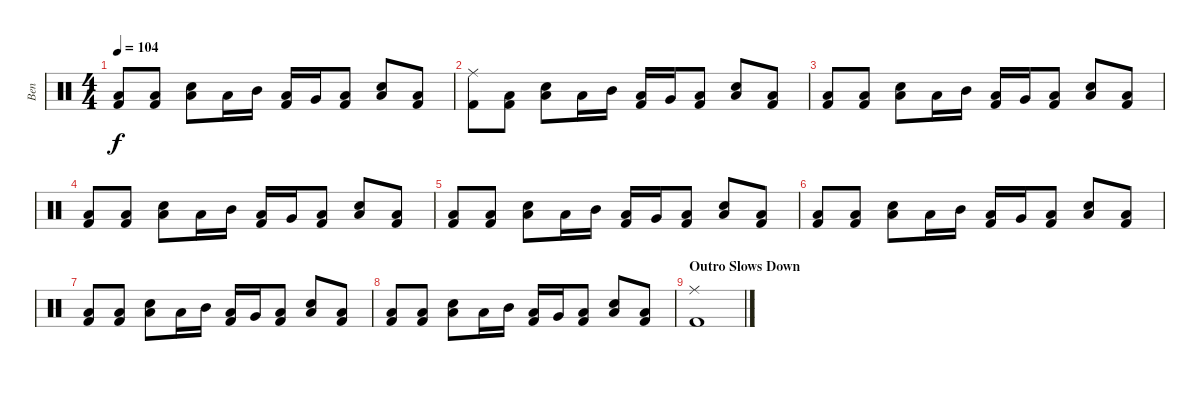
\track ("Ben" "Ben") {instrument percussion}
\staff {score}
\articulation defaults
\ts (4 4)
\tempo 104
\clef neutral
\ks c
("Low Floor Tom (hit)" "Kick (hit) 2").8{dy f} ("Low Floor Tom (hit)" "Kick (hit) 2").8 ("Snare (hit) 2" "Low Floor Tom (hit)").8 "Low Floor Tom (hit)".16 "Mid Tom (hit)".16 ("Low Floor Tom (hit)" "Kick (hit) 2").16 "Very Low Tom (hit)".16 ("Low Floor Tom (hit)" "Kick (hit) 2").8 ("Snare (hit) 2" "Low Floor Tom (hit)").8 ("Low Floor Tom (hit)" "Kick (hit) 2").8 |
("Ride (middle)" "Kick (hit) 2").8 ("Low Floor Tom (hit)" "Kick (hit) 2").8 ("Snare (hit) 2" "Low Floor Tom (hit)").8 "Low Floor Tom (hit)".16 "Mid Tom (hit)".16 ("Low Floor Tom (hit)" "Kick (hit) 2").16 "Very Low Tom (hit)".16 ("Low Floor Tom (hit)" "Kick (hit) 2").8 ("Snare (hit) 2" "Low Floor Tom (hit)").8 ("Low Floor Tom (hit)" "Kick (hit) 2").8 |
("Low Floor Tom (hit)" "Kick (hit) 2").8 ("Low Floor Tom (hit)" "Kick (hit) 2").8 ("Snare (hit) 2" "Low Floor Tom (hit)").8 "Low Floor Tom (hit)".16 "Mid Tom (hit)".16 ("Low Floor Tom (hit)" "Kick (hit) 2").16 "Very Low Tom (hit)".16 ("Low Floor Tom (hit)" "Kick (hit) 2").8 ("Snare (hit) 2" "Low Floor Tom (hit)").8 ("Low Floor Tom (hit)" "Kick (hit) 2").8 |
("Low Floor Tom (hit)" "Kick (hit) 2").8 ("Low Floor Tom (hit)" "Kick (hit) 2").8 ("Snare (hit) 2" "Low Floor Tom (hit)").8 "Low Floor Tom (hit)".16 "Mid Tom (hit)".16 ("Low Floor Tom (hit)" "Kick (hit) 2").16 "Very Low Tom (hit)".16 ("Low Floor Tom (hit)" "Kick (hit) 2").8 ("Snare (hit) 2" "Low Floor Tom (hit)").8 ("Low Floor Tom (hit)" "Kick (hit) 2").8 |
("Low Floor Tom (hit)" "Kick (hit) 2").8 ("Low Floor Tom (hit)" "Kick (hit) 2").8 ("Snare (hit) 2" "Low Floor Tom (hit)").8 "Low Floor Tom (hit)".16 "Mid Tom (hit)".16 ("Low Floor Tom (hit)" "Kick (hit) 2").16 "Very Low Tom (hit)".16 ("Low Floor Tom (hit)" "Kick (hit) 2").8 ("Snare (hit) 2" "Low Floor Tom (hit)").8 ("Low Floor Tom (hit)" "Kick (hit) 2").8 |
("Low Floor Tom (hit)" "Kick (hit) 2").8 ("Low Floor Tom (hit)" "Kick (hit) 2").8 ("Snare (hit) 2" "Low Floor Tom (hit)").8 "Low Floor Tom (hit)".16 "Mid Tom (hit)".16 ("Low Floor Tom (hit)" "Kick (hit) 2").16 "Very Low Tom (hit)".16 ("Low Floor Tom (hit)" "Kick (hit) 2").8 ("Snare (hit) 2" "Low Floor Tom (hit)").8 ("Low Floor Tom (hit)" "Kick (hit) 2").8 |
("Low Floor Tom (hit)" "Kick (hit) 2").8 ("Low Floor Tom (hit)" "Kick (hit) 2").8 ("Snare (hit) 2" "Low Floor Tom (hit)").8 "Low Floor Tom (hit)".16 "Mid Tom (hit)".16 ("Low Floor Tom (hit)" "Kick (hit) 2").16 "Very Low Tom (hit)".16 ("Low Floor Tom (hit)" "Kick (hit) 2").8 ("Snare (hit) 2" "Low Floor Tom (hit)").8 ("Low Floor Tom (hit)" "Kick (hit) 2").8 |
("Low Floor Tom (hit)" "Kick (hit) 2").8 ("Low Floor Tom (hit)" "Kick (hit) 2").8 ("Snare (hit) 2" "Low Floor Tom (hit)").8 "Low Floor Tom (hit)".16 "Mid Tom (hit)".16 ("Low Floor Tom (hit)" "Kick (hit) 2").16 "Very Low Tom (hit)".16 ("Low Floor Tom (hit)" "Kick (hit) 2").8 ("Snare (hit) 2" "Low Floor Tom (hit)").8 ("Low Floor Tom (hit)" "Kick (hit) 2").8 |
\section ("" "Outro Slows Down")
("Ride (middle)" "Kick (hit) 2").1
